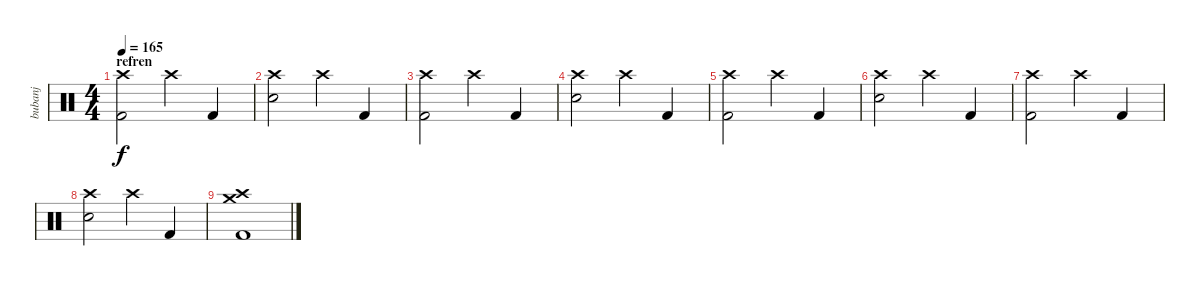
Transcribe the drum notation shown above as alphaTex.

\track ("bubanj" "bubanj") {instrument percussion}
\staff {score}
\articulation defaults
\ts (4 4)
\section ("" "refren")
\tempo 165
\clef neutral
\ks c
("Crash high (hit)" "Kick (hit) 2").2{dy f} "Crash high (hit)".4 "Kick (hit) 2".4 |
("Crash high (hit)" "Electric Snare (hit)").2 "Crash high (hit)".4 "Kick (hit) 2".4 |
("Crash high (hit)" "Kick (hit) 2").2 "Crash high (hit)".4 "Kick (hit) 2".4 |
("Crash high (hit)" "Electric Snare (hit)").2 "Crash high (hit)".4 "Kick (hit) 2".4 |
("Crash high (hit)" "Kick (hit) 2").2 "Crash high (hit)".4 "Kick (hit) 2".4 |
("Crash high (hit)" "Electric Snare (hit)").2 "Crash high (hit)".4 "Kick (hit) 2".4 |
("Crash high (hit)" "Kick (hit) 2").2 "Crash high (hit)".4 "Kick (hit) 2".4 |
("Crash high (hit)" "Electric Snare (hit)").2 "Crash high (hit)".4 "Kick (hit) 2".4 |
("Crash medium (hit)" "Crash high (hit)" "Kick (hit) 2").1
